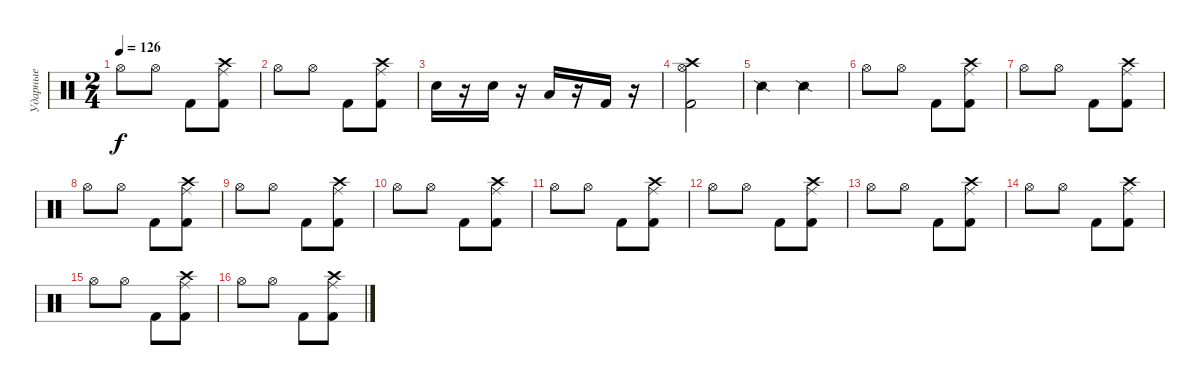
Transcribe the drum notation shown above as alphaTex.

\track ("Ударные" "Ударные") {instrument percussion}
\staff {score}
\articulation defaults
\ts (2 4)
\tempo 126
\clef neutral
\ks c "Hi-Hat (open)".8{dy f} "Hi-Hat (open)".8 "Kick (hit) 2".8
("Crash high (hit)" "Kick (hit) 2" "Ride (middle)").8 |
"Hi-Hat (open)".8 "Hi-Hat (open)".8 "Kick (hit) 2".8 ("Crash high (hit)" "Kick (hit) 2" "Ride (middle)").8 |
"Electric Snare (hit)".16 r.16 "Snare (hit) 2".16 r.16 "Low Tom (hit)".16 r.16 "Kick (hit) 2".16 r.16 |
("Crash high (hit)" "Kick (hit) 2" "Hi-Hat (open)").2 |
"Snare (side stick) 2".4 "Snare (side stick) 2".4 |
"Hi-Hat (open)".8 "Hi-Hat (open)".8 "Kick (hit) 2".8 ("Crash high (hit)" "Kick (hit) 2" "Ride (middle)").8 |
"Hi-Hat (open)".8 "Hi-Hat (open)".8 "Kick (hit) 2".8 ("Crash high (hit)" "Kick (hit) 2" "Ride (middle)").8 |
"Hi-Hat (open)".8 "Hi-Hat (open)".8 "Kick (hit) 2".8 ("Crash high (hit)" "Kick (hit) 2" "Ride (middle)").8 |
"Hi-Hat (open)".8 "Hi-Hat (open)".8 "Kick (hit) 2".8 ("Crash high (hit)" "Kick (hit) 2" "Ride (middle)").8 |
"Hi-Hat (open)".8 "Hi-Hat (open)".8 "Kick (hit) 2".8 ("Crash high (hit)" "Kick (hit) 2" "Ride (middle)").8 |
"Hi-Hat (open)".8 "Hi-Hat (open)".8 "Kick (hit) 2".8 ("Crash high (hit)" "Kick (hit) 2" "Ride (middle)").8 |
"Hi-Hat (open)".8 "Hi-Hat (open)".8 "Kick (hit) 2".8 ("Crash high (hit)" "Kick (hit) 2" "Ride (middle)").8 |
"Hi-Hat (open)".8 "Hi-Hat (open)".8 "Kick (hit) 2".8 ("Crash high (hit)" "Kick (hit) 2" "Ride (middle)").8 |
"Hi-Hat (open)".8 "Hi-Hat (open)".8 "Kick (hit) 2".8 ("Crash high (hit)" "Kick (hit) 2" "Ride (middle)").8 |
"Hi-Hat (open)".8 "Hi-Hat (open)".8 "Kick (hit) 2".8 ("Crash high (hit)" "Kick (hit) 2" "Ride (middle)").8 |
"Hi-Hat (open)".8 "Hi-Hat (open)".8 "Kick (hit) 2".8 ("Crash high (hit)" "Kick (hit) 2" "Ride (middle)").8
